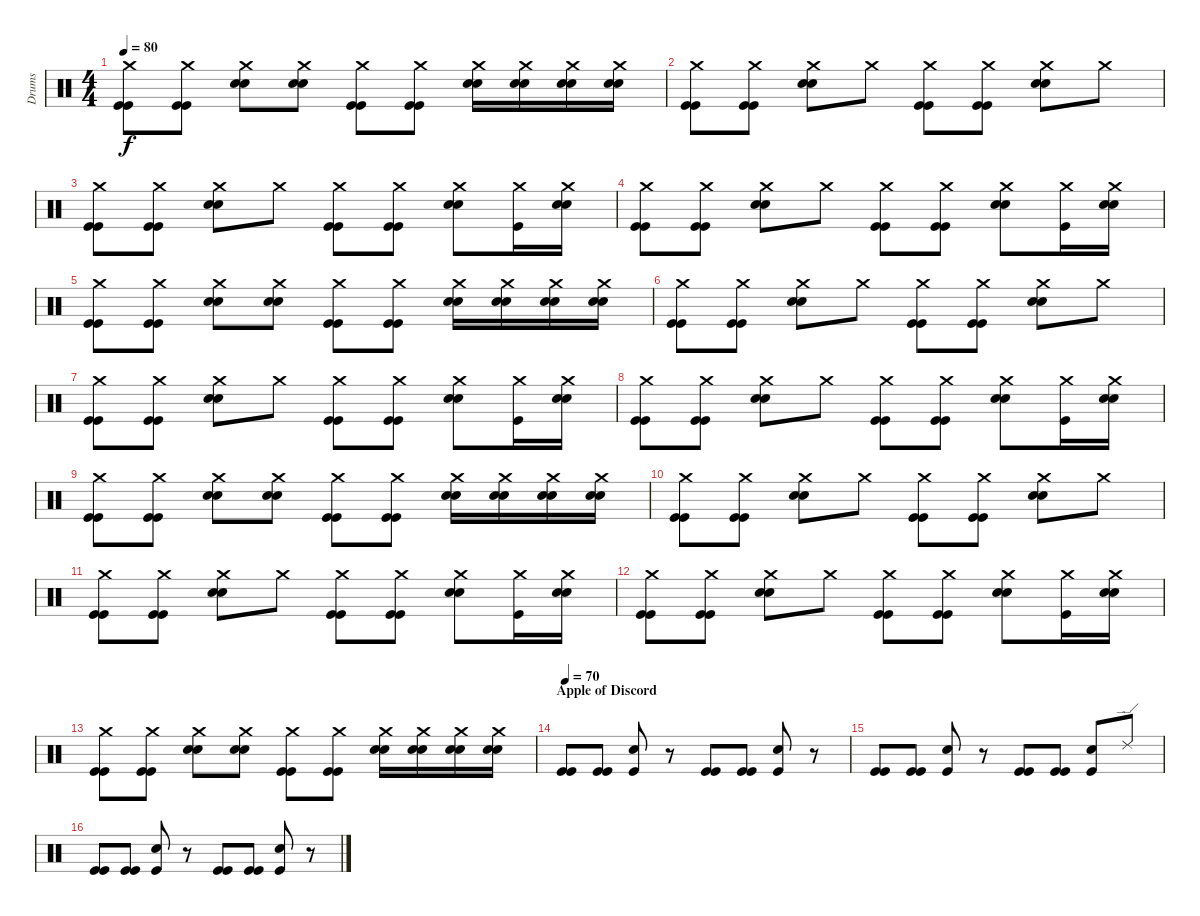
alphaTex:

\track ("Drums" "Drums") {instrument percussion}
\staff {score}
\articulation defaults
\ts (4 4)
\tempo 80
\clef neutral
\ks c
("Crash medium (hit)" "Kick (hit)" "Kick (hit)").8{dy f} ("Crash medium (hit)" "Kick (hit)" "Kick (hit)").8 ("Crash medium (hit)" "Snare (hit) 2" "Snare (hit) 2").8 ("Crash medium (hit)" "Snare (hit) 2" "Snare (hit) 2").8 ("Crash medium (hit)" "Kick (hit)" "Kick (hit)").8 ("Crash medium (hit)" "Kick (hit)" "Kick (hit)").8 ("Crash medium (hit)" "Snare (hit) 2" "Snare (hit) 2").16 ("Crash medium (hit)" "Snare (hit) 2" "Snare (hit) 2").16 ("Crash medium (hit)" "Snare (hit) 2" "Snare (hit) 2").16 ("Crash medium (hit)" "Snare (hit) 2" "Snare (hit) 2").16 |
("Crash medium (hit)" "Kick (hit)" "Kick (hit)").8 ("Crash medium (hit)" "Kick (hit)" "Kick (hit)").8 ("Crash medium (hit)" "Snare (hit) 2" "Snare (hit) 2").8 "Crash medium (hit)".8 ("Crash medium (hit)" "Kick (hit)" "Kick (hit)").8 ("Crash medium (hit)" "Kick (hit)" "Kick (hit)").8 ("Crash medium (hit)" "Snare (hit) 2" "Snare (hit) 2").8 "Crash medium (hit)".8 |
("Crash medium (hit)" "Kick (hit)" "Kick (hit)").8 ("Crash medium (hit)" "Kick (hit)" "Kick (hit)").8 ("Crash medium (hit)" "Snare (hit) 2" "Snare (hit) 2").8 "Crash medium (hit)".8 ("Crash medium (hit)" "Kick (hit)" "Kick (hit)").8 ("Crash medium (hit)" "Kick (hit)" "Kick (hit)").8 ("Crash medium (hit)" "Snare (hit) 2" "Snare (hit) 2").8 ("Crash medium (hit)" "Kick (hit)").16 ("Crash medium (hit)" "Snare (hit) 2" "Snare (hit) 2").16 |
("Crash medium (hit)" "Kick (hit)" "Kick (hit)").8 ("Crash medium (hit)" "Kick (hit)" "Kick (hit)").8 ("Crash medium (hit)" "Snare (hit) 2" "Snare (hit) 2").8 "Crash medium (hit)".8 ("Crash medium (hit)" "Kick (hit)" "Kick (hit)").8 ("Crash medium (hit)" "Kick (hit)" "Kick (hit)").8 ("Crash medium (hit)" "Snare (hit) 2" "Snare (hit) 2").8 ("Crash medium (hit)" "Kick (hit)").16 ("Crash medium (hit)" "Snare (hit) 2" "Snare (hit) 2").16 |
("Crash medium (hit)" "Kick (hit)" "Kick (hit)").8 ("Crash medium (hit)" "Kick (hit)" "Kick (hit)").8 ("Crash medium (hit)" "Snare (hit) 2" "Snare (hit) 2").8 ("Crash medium (hit)" "Snare (hit) 2" "Snare (hit) 2").8 ("Crash medium (hit)" "Kick (hit)" "Kick (hit)").8 ("Crash medium (hit)" "Kick (hit)" "Kick (hit)").8 ("Crash medium (hit)" "Snare (hit) 2" "Snare (hit) 2").16 ("Crash medium (hit)" "Snare (hit) 2" "Snare (hit) 2").16 ("Crash medium (hit)" "Snare (hit) 2" "Snare (hit) 2").16 ("Crash medium (hit)" "Snare (hit) 2" "Snare (hit) 2").16 |
("Crash medium (hit)" "Kick (hit)" "Kick (hit)").8 ("Crash medium (hit)" "Kick (hit)" "Kick (hit)").8 ("Crash medium (hit)" "Snare (hit) 2" "Snare (hit) 2").8 "Crash medium (hit)".8 ("Crash medium (hit)" "Kick (hit)" "Kick (hit)").8 ("Crash medium (hit)" "Kick (hit)" "Kick (hit)").8 ("Crash medium (hit)" "Snare (hit) 2" "Snare (hit) 2").8 "Crash medium (hit)".8 |
("Crash medium (hit)" "Kick (hit)" "Kick (hit)").8 ("Crash medium (hit)" "Kick (hit)" "Kick (hit)").8 ("Crash medium (hit)" "Snare (hit) 2" "Snare (hit) 2").8 "Crash medium (hit)".8 ("Crash medium (hit)" "Kick (hit)" "Kick (hit)").8 ("Crash medium (hit)" "Kick (hit)" "Kick (hit)").8 ("Crash medium (hit)" "Snare (hit) 2" "Snare (hit) 2").8 ("Crash medium (hit)" "Kick (hit)").16 ("Crash medium (hit)" "Snare (hit) 2" "Snare (hit) 2").16 |
("Crash medium (hit)" "Kick (hit)" "Kick (hit)").8 ("Crash medium (hit)" "Kick (hit)" "Kick (hit)").8 ("Crash medium (hit)" "Snare (hit) 2" "Snare (hit) 2").8 "Crash medium (hit)".8 ("Crash medium (hit)" "Kick (hit)" "Kick (hit)").8 ("Crash medium (hit)" "Kick (hit)" "Kick (hit)").8 ("Crash medium (hit)" "Snare (hit) 2" "Snare (hit) 2").8 ("Crash medium (hit)" "Kick (hit)").16 ("Crash medium (hit)" "Snare (hit) 2" "Snare (hit) 2").16 |
("Crash medium (hit)" "Kick (hit)" "Kick (hit)").8 ("Crash medium (hit)" "Kick (hit)" "Kick (hit)").8 ("Crash medium (hit)" "Snare (hit) 2" "Snare (hit) 2").8 ("Crash medium (hit)" "Snare (hit) 2" "Snare (hit) 2").8 ("Crash medium (hit)" "Kick (hit)" "Kick (hit)").8 ("Crash medium (hit)" "Kick (hit)" "Kick (hit)").8 ("Crash medium (hit)" "Snare (hit) 2" "Snare (hit) 2").16 ("Crash medium (hit)" "Snare (hit) 2" "Snare (hit) 2").16 ("Crash medium (hit)" "Snare (hit) 2" "Snare (hit) 2").16 ("Crash medium (hit)" "Snare (hit) 2" "Snare (hit) 2").16 |
("Crash medium (hit)" "Kick (hit)" "Kick (hit)").8 ("Crash medium (hit)" "Kick (hit)" "Kick (hit)").8 ("Crash medium (hit)" "Snare (hit) 2" "Snare (hit) 2").8 "Crash medium (hit)".8 ("Crash medium (hit)" "Kick (hit)" "Kick (hit)").8 ("Crash medium (hit)" "Kick (hit)" "Kick (hit)").8 ("Crash medium (hit)" "Snare (hit) 2" "Snare (hit) 2").8 "Crash medium (hit)".8 |
("Crash medium (hit)" "Kick (hit)" "Kick (hit)").8 ("Crash medium (hit)" "Kick (hit)" "Kick (hit)").8 ("Crash medium (hit)" "Snare (hit) 2" "Snare (hit) 2").8 "Crash medium (hit)".8 ("Crash medium (hit)" "Kick (hit)" "Kick (hit)").8 ("Crash medium (hit)" "Kick (hit)" "Kick (hit)").8 ("Crash medium (hit)" "Snare (hit) 2" "Snare (hit) 2").8 ("Crash medium (hit)" "Kick (hit)").16 ("Crash medium (hit)" "Snare (hit) 2" "Snare (hit) 2").16 |
("Crash medium (hit)" "Kick (hit)" "Kick (hit)").8 ("Crash medium (hit)" "Kick (hit)" "Kick (hit)").8 ("Crash medium (hit)" "Snare (hit) 2" "Snare (hit) 2").8 "Crash medium (hit)".8 ("Crash medium (hit)" "Kick (hit)" "Kick (hit)").8 ("Crash medium (hit)" "Kick (hit)" "Kick (hit)").8 ("Crash medium (hit)" "Snare (hit) 2" "Snare (hit) 2").8 ("Crash medium (hit)" "Kick (hit)").16 ("Crash medium (hit)" "Snare (hit) 2" "Snare (hit) 2").16 |
("Crash medium (hit)" "Kick (hit)" "Kick (hit)").8 ("Crash medium (hit)" "Kick (hit)" "Kick (hit)").8 ("Crash medium (hit)" "Snare (hit) 2" "Snare (hit) 2").8 ("Crash medium (hit)" "Snare (hit) 2" "Snare (hit) 2").8 ("Crash medium (hit)" "Kick (hit)" "Kick (hit)").8 ("Crash medium (hit)" "Kick (hit)" "Kick (hit)").8 ("Crash medium (hit)" "Snare (hit) 2" "Snare (hit) 2").16 ("Crash medium (hit)" "Snare (hit) 2" "Snare (hit) 2").16 ("Crash medium (hit)" "Snare (hit) 2" "Snare (hit) 2").16 ("Crash medium (hit)" "Snare (hit) 2" "Snare (hit) 2").16 |
\section ("" "Apple of Discord")
\tempo 70
("Kick (hit)" "Kick (hit)").8 ("Kick (hit)" "Kick (hit)").8 ("Snare (hit) 2" "Kick (hit)").8 r.8 ("Kick (hit)" "Kick (hit)").8 ("Kick (hit)" "Kick (hit)").8 ("Snare (hit) 2" "Kick (hit)").8 r.8 |
("Kick (hit)" "Kick (hit)").8 ("Kick (hit)" "Kick (hit)").8 ("Snare (hit) 2" "Kick (hit)").8 r.8 ("Kick (hit)" "Kick (hit)").8 ("Kick (hit)" "Kick (hit)").8 ("Snare (hit) 2" "Kick (hit)").8 "Ride (edge) 2".8 |
("Kick (hit)" "Kick (hit)").8 ("Kick (hit)" "Kick (hit)").8 ("Snare (hit) 2" "Kick (hit)").8 r.8 ("Kick (hit)" "Kick (hit)").8 ("Kick (hit)" "Kick (hit)").8 ("Snare (hit) 2" "Kick (hit)").8 r.8
